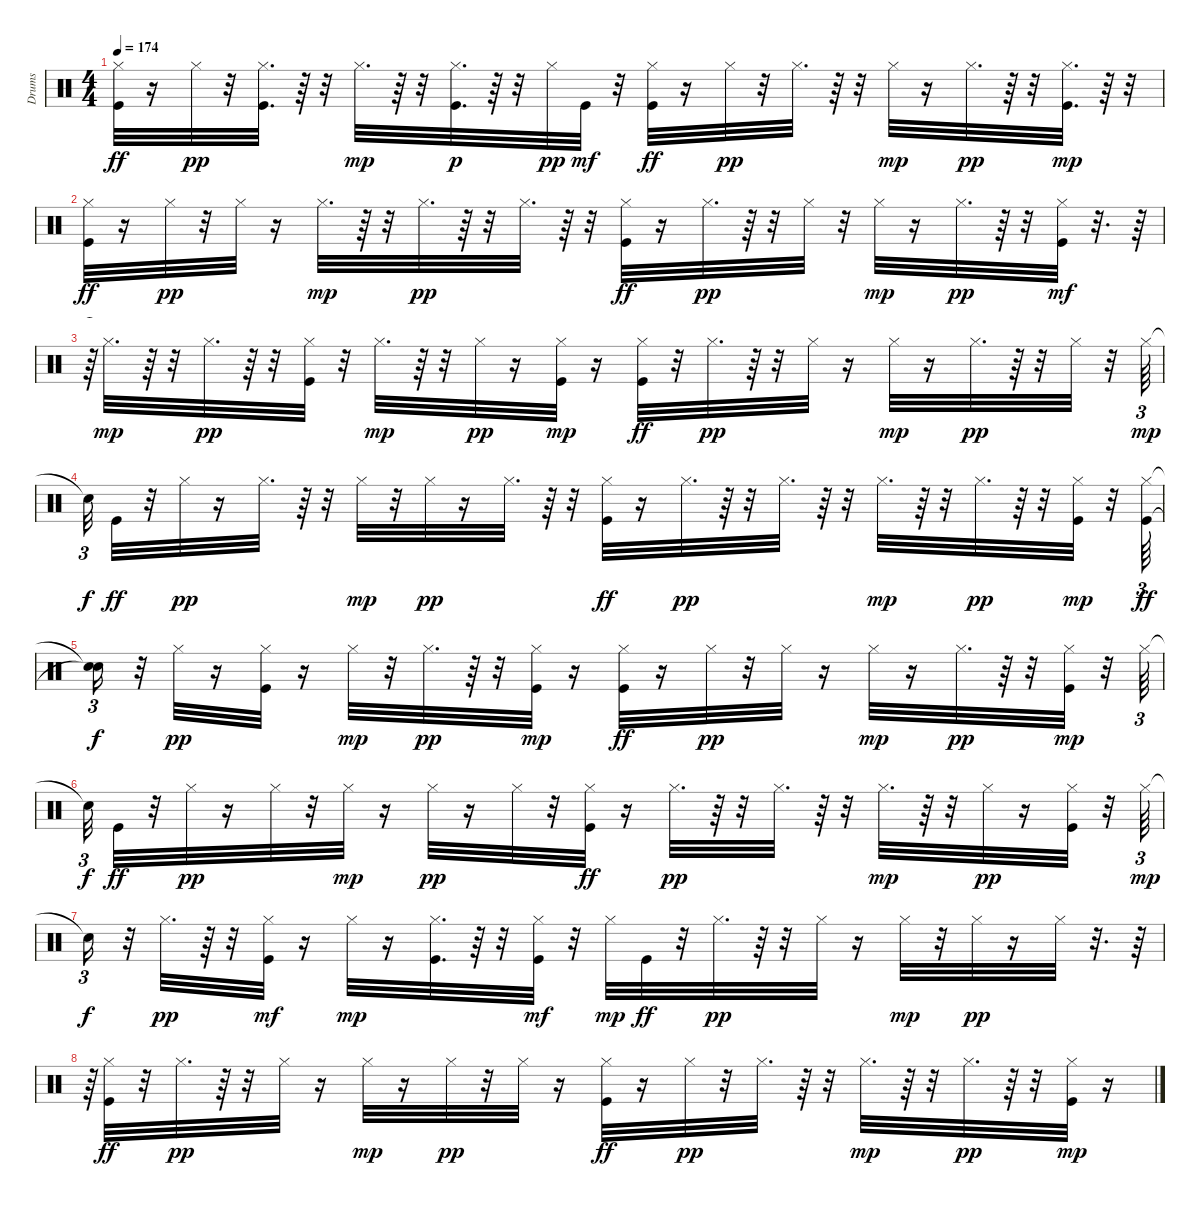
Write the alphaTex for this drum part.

\track ("Drums" "Drums") {instrument percussion}
\staff {score}
\articulation defaults
\ts (4 4)
\tempo 174
\clef neutral
\ks c
("Hi-Hat (closed)" "Kick (hit)").32{dy ff} r.16 "Hi-Hat (closed)".32{dy pp} r.32 ("Hi-Hat (closed)" "Kick (hit)").32{d} r.64 r.32 "Hi-Hat (closed)".32{d dy mp} r.64 r.32 ("Hi-Hat (closed)" "Kick (hit)").32{d dy p} r.64 r.32 "Hi-Hat (closed)".32{dy pp} "Kick (hit)".32{dy mf} r.32 ("Hi-Hat (closed)" "Kick (hit)").32{dy ff} r.16 "Hi-Hat (closed)".32{dy pp} r.32 "Hi-Hat (closed)".32{d} r.64 r.32 "Hi-Hat (closed)".32{dy mp} r.16 "Hi-Hat (closed)".32{d dy pp} r.64 r.32 ("Hi-Hat (closed)" "Kick (hit)").32{d dy mp} r.64 r.32 |
("Hi-Hat (closed)" "Kick (hit)").32{dy ff} r.16 "Hi-Hat (closed)".32{dy pp} r.32 "Hi-Hat (closed)".32 r.16 "Hi-Hat (closed)".32{d dy mp} r.64 r.32 "Hi-Hat (closed)".32{d dy pp} r.64 r.32 "Hi-Hat (closed)".32{d} r.64 r.32 ("Hi-Hat (closed)" "Kick (hit)").32{dy ff} r.16 "Hi-Hat (closed)".32{d dy pp} r.64 r.32 "Hi-Hat (closed)".32 r.32 "Hi-Hat (closed)".32{dy mp} r.16 "Hi-Hat (closed)".32{d dy pp} r.64 r.32 ("Hi-Hat (closed)" "Kick (hit)").32{dy mf} r.32{d} r.64 |
r.64{tu (3 2)} "Hi-Hat (closed)".32{d dy mp} r.64 r.32 "Hi-Hat (closed)".32{d dy pp} r.64 r.32 ("Hi-Hat (closed)" "Kick (hit)").32 r.32 "Hi-Hat (closed)".32{d dy mp} r.64 r.32 "Hi-Hat (closed)".32{dy pp} r.16 ("Hi-Hat (closed)" "Kick (hit)").32{dy mp} r.16 ("Hi-Hat (closed)" "Kick (hit)").32{dy ff} r.32 "Hi-Hat (closed)".32{d dy pp} r.64 r.32 "Hi-Hat (closed)".32 r.16 "Hi-Hat (closed)".32{dy mp} r.16 "Hi-Hat (closed)".32{d dy pp} r.64 r.32 "Hi-Hat (closed)".32 r.32 "Hi-Hat (closed)".64{tu (3 2) dy mp} |
"Snare (hit)"{t}.32{tu (3 2) dy f} "Kick (hit)".32{dy ff} r.32 "Hi-Hat (closed)".32{dy pp} r.16 "Hi-Hat (closed)".32{d} r.64 r.32 "Hi-Hat (closed)".32{dy mp} r.32 "Hi-Hat (closed)".32{dy pp} r.16 "Hi-Hat (closed)".32{d} r.64 r.32 ("Hi-Hat (closed)" "Kick (hit)").32{dy ff} r.16 "Hi-Hat (closed)".32{d dy pp} r.64 r.32 "Hi-Hat (closed)".32{d} r.64 r.32 "Hi-Hat (closed)".32{d dy mp} r.64 r.32 "Hi-Hat (closed)".32{d dy pp} r.64 r.32 ("Hi-Hat (closed)" "Kick (hit)").32{dy mp} r.32 ("Hi-Hat (closed)" "Kick (hit)").64{tu (3 2) dy ff} |
("Snare (hit)"{t} "Snare (hit)"{t}).16{tu (3 2) dy f} r.32 "Hi-Hat (closed)".32{dy pp} r.16 ("Hi-Hat (closed)" "Kick (hit)").32 r.16 "Hi-Hat (closed)".32{dy mp} r.32 "Hi-Hat (closed)".32{d dy pp} r.64 r.32 ("Hi-Hat (closed)" "Kick (hit)").32{dy mp} r.16 ("Hi-Hat (closed)" "Kick (hit)").32{dy ff} r.16 "Hi-Hat (closed)".32{dy pp} r.32 "Hi-Hat (closed)".32 r.16 "Hi-Hat (closed)".32{dy mp} r.16 "Hi-Hat (closed)".32{d dy pp} r.64 r.32 ("Hi-Hat (closed)" "Kick (hit)").32{dy mp} r.32 "Hi-Hat (closed)".64{tu (3 2)} |
"Snare (hit)"{t}.32{tu (3 2) dy f} "Kick (hit)".32{dy ff} r.32 "Hi-Hat (closed)".32{dy pp} r.16 "Hi-Hat (closed)".32 r.32 "Hi-Hat (closed)".32{dy mp} r.16 "Hi-Hat (closed)".32{dy pp} r.16 "Hi-Hat (closed)".32 r.32 ("Hi-Hat (closed)" "Kick (hit)").32{dy ff} r.16 "Hi-Hat (closed)".32{d dy pp} r.64 r.32 "Hi-Hat (closed)".32{d} r.64 r.32 "Hi-Hat (closed)".32{d dy mp} r.64 r.32 "Hi-Hat (closed)".32{dy pp} r.16 ("Hi-Hat (closed)" "Kick (hit)").32 r.32 "Hi-Hat (closed)".64{tu (3 2) dy mp} |
"Snare (hit)"{t}.16{tu (3 2) dy f} r.32 "Hi-Hat (closed)".32{d dy pp} r.64 r.32 ("Hi-Hat (closed)" "Kick (hit)").32{dy mf} r.16 "Hi-Hat (closed)".32{dy mp} r.16 ("Hi-Hat (closed)" "Kick (hit)").32{d} r.64 r.32 ("Hi-Hat (closed)" "Kick (hit)").32{dy mf} r.32 "Hi-Hat (closed)".32{dy mp} "Kick (hit)".32{dy ff} r.32 "Hi-Hat (closed)".32{d dy pp} r.64 r.32 "Hi-Hat (closed)".32 r.16 "Hi-Hat (closed)".32{dy mp} r.32 "Hi-Hat (closed)".32{dy pp} r.16 "Hi-Hat (closed)".32 r.32{d} r.64 |
r.64{tu (3 2)} ("Hi-Hat (closed)" "Kick (hit)").32{dy ff} r.32 "Hi-Hat (closed)".32{d dy pp} r.64 r.32 "Hi-Hat (closed)".32 r.16 "Hi-Hat (closed)".32{dy mp} r.16 "Hi-Hat (closed)".32{dy pp} r.32 "Hi-Hat (closed)".32 r.16 ("Hi-Hat (closed)" "Kick (hit)").32{dy ff} r.16 "Hi-Hat (closed)".32{dy pp} r.32 "Hi-Hat (closed)".32{d} r.64 r.32 "Hi-Hat (closed)".32{d dy mp} r.64 r.32 "Hi-Hat (closed)".32{d dy pp} r.64 r.32 ("Hi-Hat (closed)" "Kick (hit)").32{dy mp} r.16
